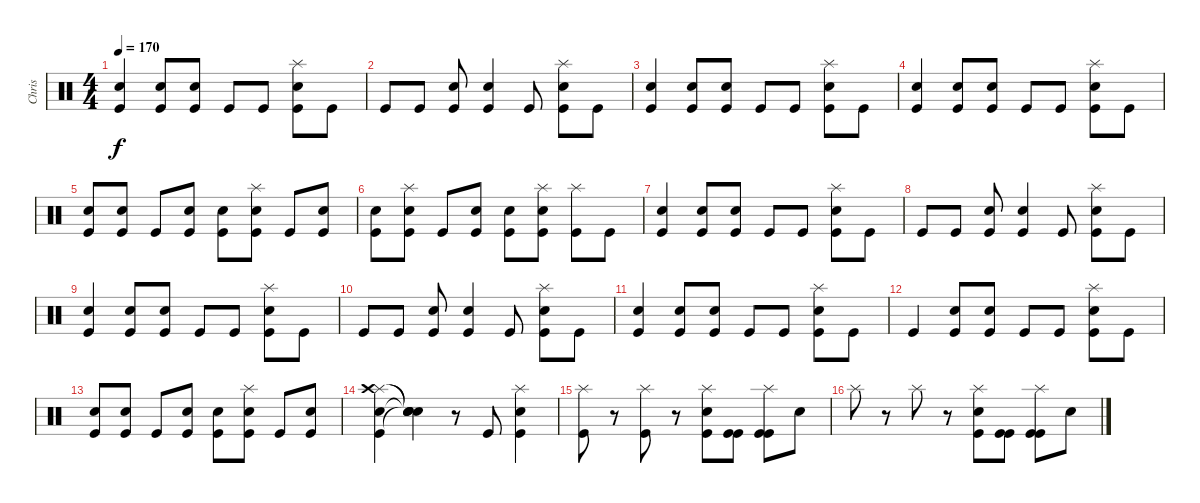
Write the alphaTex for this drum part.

\track ("Chris" "Chris") {instrument percussion}
\staff {score}
\articulation defaults
\ts (4 4)
\tempo 170
\clef neutral
\ks c
("Kick (hit)" "Snare (hit) 2").4{dy f} ("Kick (hit)" "Snare (hit) 2").8 ("Kick (hit)" "Snare (hit) 2").8 "Kick (hit)".8 "Kick (hit)".8 ("Kick (hit)" "Splash (hit)" "Snare (hit) 2").8 "Kick (hit)".8 |
"Kick (hit)".8 "Kick (hit)".8 ("Kick (hit)" "Snare (hit) 2").8 ("Kick (hit)" "Snare (hit) 2").4 "Kick (hit)".8 ("Kick (hit)" "Splash (hit)" "Snare (hit) 2").8 "Kick (hit)".8 |
("Kick (hit)" "Snare (hit) 2").4 ("Kick (hit)" "Snare (hit) 2").8 ("Kick (hit)" "Snare (hit) 2").8 "Kick (hit)".8 "Kick (hit)".8 ("Kick (hit)" "Splash (hit)" "Snare (hit) 2").8 "Kick (hit)".8 |
("Kick (hit)" "Snare (hit) 2").4 ("Kick (hit)" "Snare (hit) 2").8 ("Kick (hit)" "Snare (hit) 2").8 "Kick (hit)".8 "Kick (hit)".8 ("Kick (hit)" "Splash (hit)" "Snare (hit) 2").8 "Kick (hit)".8 |
("Kick (hit)" "Snare (hit) 2").8 ("Kick (hit)" "Snare (hit) 2").8 "Kick (hit)".8 ("Kick (hit)" "Snare (hit) 2").8 ("Kick (hit)" "Snare (hit) 2").8 ("Kick (hit)" "Splash (hit)" "Snare (hit) 2").8 "Kick (hit)".8 ("Kick (hit)" "Snare (hit) 2").8 |
("Kick (hit)" "Snare (hit) 2").8 ("Kick (hit)" "Splash (hit)" "Snare (hit) 2").8 "Kick (hit)".8 ("Kick (hit)" "Snare (hit) 2").8 ("Kick (hit)" "Snare (hit) 2").8 ("Kick (hit)" "Splash (hit)" "Snare (hit) 2").8 ("Kick (hit)" "Splash (hit)").8 "Kick (hit)".8 |
("Kick (hit)" "Snare (hit) 2").4 ("Kick (hit)" "Snare (hit) 2").8 ("Kick (hit)" "Snare (hit) 2").8 "Kick (hit)".8 "Kick (hit)".8 ("Kick (hit)" "Splash (hit)" "Snare (hit) 2").8 "Kick (hit)".8 |
"Kick (hit)".8 "Kick (hit)".8 ("Kick (hit)" "Snare (hit) 2").8 ("Kick (hit)" "Snare (hit) 2").4 "Kick (hit)".8 ("Kick (hit)" "Splash (hit)" "Snare (hit) 2").8 "Kick (hit)".8 |
("Kick (hit)" "Snare (hit) 2").4 ("Kick (hit)" "Snare (hit) 2").8 ("Kick (hit)" "Snare (hit) 2").8 "Kick (hit)".8 "Kick (hit)".8 ("Kick (hit)" "Splash (hit)" "Snare (hit) 2").8 "Kick (hit)".8 |
"Kick (hit)".8 "Kick (hit)".8 ("Kick (hit)" "Snare (hit) 2").8 ("Kick (hit)" "Snare (hit) 2").4 "Kick (hit)".8 ("Kick (hit)" "Splash (hit)" "Snare (hit) 2").8 "Kick (hit)".8 |
("Kick (hit)" "Snare (hit) 2").4 ("Kick (hit)" "Snare (hit) 2").8 ("Kick (hit)" "Snare (hit) 2").8 "Kick (hit)".8 "Kick (hit)".8 ("Kick (hit)" "Splash (hit)" "Snare (hit) 2").8 "Kick (hit)".8 |
"Kick (hit)".4 ("Kick (hit)" "Snare (hit) 2").8 ("Kick (hit)" "Snare (hit) 2").8 "Kick (hit)".8 "Kick (hit)".8 ("Kick (hit)" "Splash (hit)" "Snare (hit) 2").8 "Kick (hit)".8 |
("Kick (hit)" "Snare (hit) 2").8 ("Kick (hit)" "Snare (hit) 2").8 "Kick (hit)".8 ("Kick (hit)" "Snare (hit) 2").8 ("Kick (hit)" "Snare (hit) 2").8 ("Kick (hit)" "Splash (hit)" "Snare (hit) 2").8 "Kick (hit)".8 ("Kick (hit)" "Snare (hit) 2").8 |
("Kick (hit)" "Splash (hit)" "Crash high (hit)" "Snare (hit) 2").4 ("Snare (hit)"{t} "Snare (hit)"{t} "Snare (hit)"{t} "Snare (hit)"{t}).4 r.8 "Kick (hit)".8 ("Kick (hit)" "Splash (hit)" "Snare (hit) 2").4 |
("Kick (hit)" "Splash (hit)").8 r.8 ("Kick (hit)" "Splash (hit)").8 r.8 ("Kick (hit)" "Splash (hit)" "Snare (hit) 2").8 ("Kick (hit)" "Kick (hit)").8 ("Kick (hit)" "Splash (hit)" "Kick (hit)").8 "Snare (hit) 2".8 |
"Splash (hit)".8 r.8 "Splash (hit)".8 r.8 ("Kick (hit)" "Splash (hit)" "Snare (hit) 2").8 ("Kick (hit)" "Kick (hit)").8 ("Kick (hit)" "Splash (hit)" "Kick (hit)").8 "Snare (hit) 2".8
